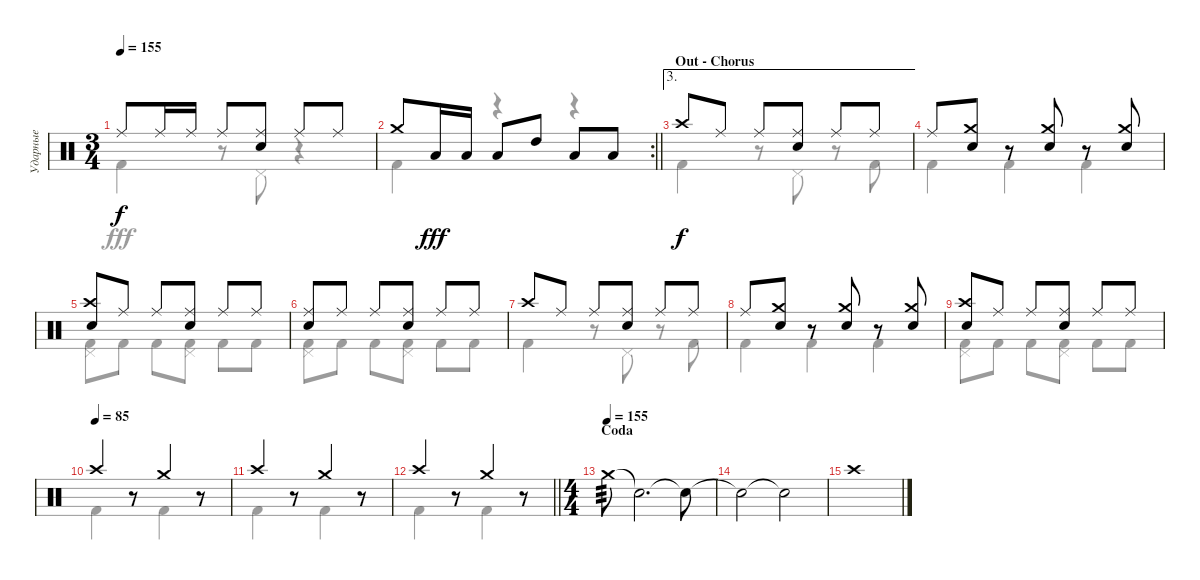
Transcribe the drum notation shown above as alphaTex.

\track ("Ударные" "Ударные") {instrument percussion}
\staff {score}
\articulation defaults
\voice
\ts (3 4)
\tempo 155
\clef neutral
\ks c "Ride (middle)".8{dy f} "Ride (middle)".16 "Ride (middle)".16 "Ride (middle)".8
("Ride (middle)" "Electric Snare (hit)").8 "Ride (middle)".8 "Ride (middle)".8 |
\rc 2
\barLineRight lightlight "Crash medium (hit)".8 "Low Floor Tom (hit)".16{dy fff} "Low Floor Tom (hit)".16 "Low Floor Tom (hit)".8 "High Tom (hit)".8 "Low Tom (hit)".8 "Low Floor Tom (hit)".8
|
\ae 3
\section ("" "Out - Chorus")
"Crash high (hit)".8{dy f} "Ride (middle)".8 "Ride (middle)".8 ("Ride (middle)" "Electric Snare (hit)").8 "Ride (middle)".8 "Ride (middle)".8 |
"Ride (middle)".8 ("Crash medium (hit)" "Electric Snare (hit)").8 r.8 ("Crash medium (hit)" "Electric Snare (hit)").8 r.8 ("Crash medium (hit)" "Electric Snare (hit)").8 |
("Crash high (hit)" "Electric Snare (hit)").8 "Ride (middle)".8 "Ride (middle)".8 ("Ride (middle)" "Electric Snare (hit)").8 "Ride (middle)".8 "Ride (middle)".8 |
("Ride (middle)" "Electric Snare (hit)").8 "Ride (middle)".8 "Ride (middle)".8 ("Ride (middle)" "Electric Snare (hit)").8 "Ride (middle)".8 "Ride (middle)".8 |
"Crash high (hit)".8 "Ride (middle)".8 "Ride (middle)".8 ("Ride (middle)" "Electric Snare (hit)").8 "Ride (middle)".8 "Ride (middle)".8 |
"Ride (middle)".8 ("Crash medium (hit)" "Electric Snare (hit)").8 r.8 ("Crash medium (hit)" "Electric Snare (hit)").8 r.8 ("Crash medium (hit)" "Electric Snare (hit)").8 |
("Crash high (hit)" "Electric Snare (hit)").8 "Ride (middle)".8 "Ride (middle)".8 ("Ride (middle)" "Electric Snare (hit)").8 "Ride (middle)".8 "Ride (middle)".8 |
\tempo (85)
"Crash high (hit)".4 r.8 "Crash medium (hit)".4 r.8 |
"Crash high (hit)".4 r.8 "Crash medium (hit)".4 r.8 |
\barLineRight lightlight "Crash high (hit)".4
r.8 "Crash medium (hit)".4 r.8 |
\ts (4 4)
\section ("" "Coda")
\tempo (155)
"Crash medium (hit)".8{tp 3 volume 0} "Snare (hit)"{t}.2{d volume 12} "Snare (hit)"{t}.8 |
"Snare (hit)"{t}.2 "Snare (hit)"{t}.2 |
"Crash high (hit)".1
\voice
\clef neutral
\ottava regular
\simile none
\ks c "Kick (hit) 2".4{dy fff}
r.8 "Pedal Hi-Hat (hit)".8 r.4 |
\barLineRight lightlight "Kick (hit) 2".4
r.4 r.4 |
"Kick (hit) 2".4 r.8 "Pedal Hi-Hat (hit)".8 r.8 "Kick (hit) 2".8 |
"Kick (hit) 2".4 "Kick (hit) 2".4 "Kick (hit) 2".4 |
("Pedal Hi-Hat (hit)" "Kick (hit) 2").8 "Kick (hit) 2".8 "Kick (hit) 2".8 ("Pedal Hi-Hat (hit)" "Kick (hit) 2").8 "Kick (hit) 2".8 "Kick (hit) 2".8 |
("Pedal Hi-Hat (hit)" "Kick (hit) 2").8 "Kick (hit) 2".8 "Kick (hit) 2".8 ("Pedal Hi-Hat (hit)" "Kick (hit) 2").8 "Kick (hit) 2".8 "Kick (hit) 2".8 |
"Kick (hit) 2".4 r.8 "Pedal Hi-Hat (hit)".8 r.8 "Kick (hit) 2".8 |
"Kick (hit) 2".4 "Kick (hit) 2".4 "Kick (hit) 2".4 |
("Pedal Hi-Hat (hit)" "Kick (hit) 2").8 "Kick (hit) 2".8 "Kick (hit) 2".8 ("Pedal Hi-Hat (hit)" "Kick (hit) 2").8 "Kick (hit) 2".8 "Kick (hit) 2".8 |
"Kick (hit) 2".4 r.8 "Kick (hit) 2".4 r.8 |
"Kick (hit) 2".4 r.8 "Kick (hit) 2".4 r.8 |
\barLineRight lightlight "Kick (hit) 2".4
r.8 "Kick (hit) 2".4 r.8 |
|
|
